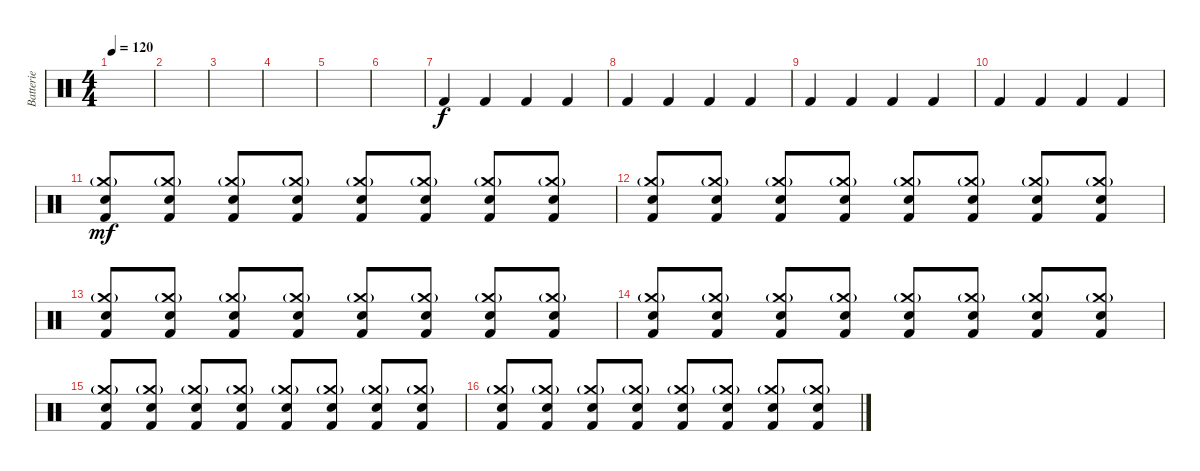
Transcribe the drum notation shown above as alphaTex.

\track ("Batterie" "Batterie") {instrument percussion}
\staff {score}
\articulation defaults
\ts (4 4)
\tempo 120
\clef neutral
\ks c
|
|
|
|
|
|
"Kick (hit) 2".4{dy f} "Kick (hit) 2".4 "Kick (hit) 2".4 "Kick (hit) 2".4 |
"Kick (hit) 2".4 "Kick (hit) 2".4 "Kick (hit) 2".4 "Kick (hit) 2".4 |
"Kick (hit) 2".4 "Kick (hit) 2".4 "Kick (hit) 2".4 "Kick (hit) 2".4 |
"Kick (hit) 2".4 "Kick (hit) 2".4 "Kick (hit) 2".4 "Kick (hit) 2".4 |
("Crash medium (hit)"{g} "Electric Snare (hit)" "Kick (hit) 2").8{dy mf} ("Crash medium (hit)"{g} "Electric Snare (hit)" "Kick (hit) 2").8 ("Crash medium (hit)"{g} "Electric Snare (hit)" "Kick (hit) 2").8 ("Crash medium (hit)"{g} "Electric Snare (hit)" "Kick (hit) 2").8 ("Crash medium (hit)"{g} "Electric Snare (hit)" "Kick (hit) 2").8 ("Crash medium (hit)"{g} "Electric Snare (hit)" "Kick (hit) 2").8 ("Crash medium (hit)"{g} "Electric Snare (hit)" "Kick (hit) 2").8 ("Crash medium (hit)"{g} "Electric Snare (hit)" "Kick (hit) 2").8 |
("Crash medium (hit)"{g} "Electric Snare (hit)" "Kick (hit) 2").8 ("Crash medium (hit)"{g} "Electric Snare (hit)" "Kick (hit) 2").8 ("Crash medium (hit)"{g} "Electric Snare (hit)" "Kick (hit) 2").8 ("Crash medium (hit)"{g} "Electric Snare (hit)" "Kick (hit) 2").8 ("Crash medium (hit)"{g} "Electric Snare (hit)" "Kick (hit) 2").8 ("Crash medium (hit)"{g} "Electric Snare (hit)" "Kick (hit) 2").8 ("Crash medium (hit)"{g} "Electric Snare (hit)" "Kick (hit) 2").8 ("Crash medium (hit)"{g} "Electric Snare (hit)" "Kick (hit) 2").8 |
("Crash medium (hit)"{g} "Electric Snare (hit)" "Kick (hit) 2").8 ("Crash medium (hit)"{g} "Electric Snare (hit)" "Kick (hit) 2").8 ("Crash medium (hit)"{g} "Electric Snare (hit)" "Kick (hit) 2").8 ("Crash medium (hit)"{g} "Electric Snare (hit)" "Kick (hit) 2").8 ("Crash medium (hit)"{g} "Electric Snare (hit)" "Kick (hit) 2").8 ("Crash medium (hit)"{g} "Electric Snare (hit)" "Kick (hit) 2").8 ("Crash medium (hit)"{g} "Electric Snare (hit)" "Kick (hit) 2").8 ("Crash medium (hit)"{g} "Electric Snare (hit)" "Kick (hit) 2").8 |
("Crash medium (hit)"{g} "Electric Snare (hit)" "Kick (hit) 2").8 ("Crash medium (hit)"{g} "Electric Snare (hit)" "Kick (hit) 2").8 ("Crash medium (hit)"{g} "Electric Snare (hit)" "Kick (hit) 2").8 ("Crash medium (hit)"{g} "Electric Snare (hit)" "Kick (hit) 2").8 ("Crash medium (hit)"{g} "Electric Snare (hit)" "Kick (hit) 2").8 ("Crash medium (hit)"{g} "Electric Snare (hit)" "Kick (hit) 2").8 ("Crash medium (hit)"{g} "Electric Snare (hit)" "Kick (hit) 2").8 ("Crash medium (hit)"{g} "Electric Snare (hit)" "Kick (hit) 2").8 |
("Crash medium (hit)"{g} "Electric Snare (hit)" "Kick (hit) 2").8 ("Crash medium (hit)"{g} "Electric Snare (hit)" "Kick (hit) 2").8 ("Crash medium (hit)"{g} "Electric Snare (hit)" "Kick (hit) 2").8 ("Crash medium (hit)"{g} "Electric Snare (hit)" "Kick (hit) 2").8 ("Crash medium (hit)"{g} "Electric Snare (hit)" "Kick (hit) 2").8 ("Crash medium (hit)"{g} "Electric Snare (hit)" "Kick (hit) 2").8 ("Crash medium (hit)"{g} "Electric Snare (hit)" "Kick (hit) 2").8 ("Crash medium (hit)"{g} "Electric Snare (hit)" "Kick (hit) 2").8 |
("Crash medium (hit)"{g} "Electric Snare (hit)" "Kick (hit) 2").8 ("Crash medium (hit)"{g} "Electric Snare (hit)" "Kick (hit) 2").8 ("Crash medium (hit)"{g} "Electric Snare (hit)" "Kick (hit) 2").8 ("Crash medium (hit)"{g} "Electric Snare (hit)" "Kick (hit) 2").8 ("Crash medium (hit)"{g} "Electric Snare (hit)" "Kick (hit) 2").8 ("Crash medium (hit)"{g} "Electric Snare (hit)" "Kick (hit) 2").8 ("Crash medium (hit)"{g} "Electric Snare (hit)" "Kick (hit) 2").8 ("Crash medium (hit)"{g} "Electric Snare (hit)" "Kick (hit) 2").8
